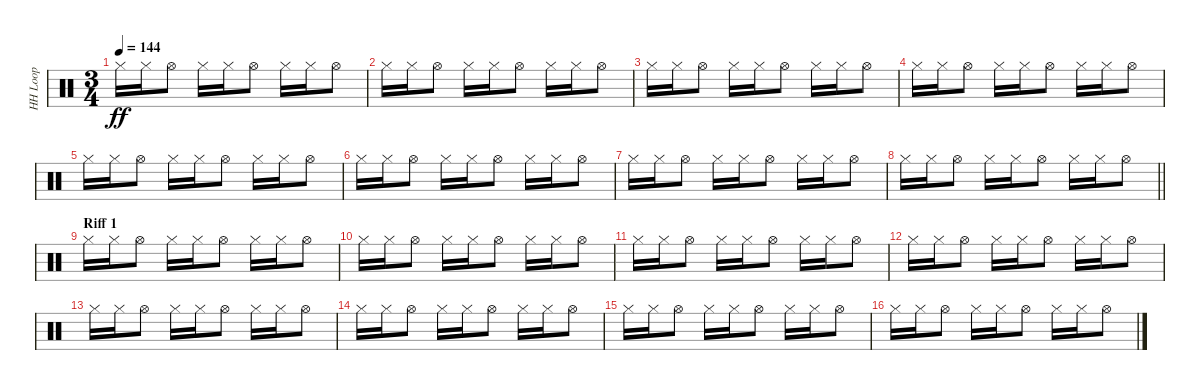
\track ("HH Loop" "HH Loop") {instrument percussion}
\staff {score}
\articulation defaults
\ts (3 4)
\tempo 144
\clef neutral
\ks c "Hi-Hat (closed)".16{dy ff} "Hi-Hat (closed)".16 "Hi-Hat (open)".8 "Hi-Hat (closed)".16 "Hi-Hat (closed)".16 "Hi-Hat (open)".8 "Hi-Hat (closed)".16 "Hi-Hat (closed)".16 "Hi-Hat (open)".8
|
"Hi-Hat (closed)".16 "Hi-Hat (closed)".16 "Hi-Hat (open)".8 "Hi-Hat (closed)".16 "Hi-Hat (closed)".16 "Hi-Hat (open)".8 "Hi-Hat (closed)".16 "Hi-Hat (closed)".16 "Hi-Hat (open)".8 |
"Hi-Hat (closed)".16 "Hi-Hat (closed)".16 "Hi-Hat (open)".8 "Hi-Hat (closed)".16 "Hi-Hat (closed)".16 "Hi-Hat (open)".8 "Hi-Hat (closed)".16 "Hi-Hat (closed)".16 "Hi-Hat (open)".8 |
"Hi-Hat (closed)".16 "Hi-Hat (closed)".16 "Hi-Hat (open)".8 "Hi-Hat (closed)".16 "Hi-Hat (closed)".16 "Hi-Hat (open)".8 "Hi-Hat (closed)".16 "Hi-Hat (closed)".16 "Hi-Hat (open)".8 |
"Hi-Hat (closed)".16 "Hi-Hat (closed)".16 "Hi-Hat (open)".8 "Hi-Hat (closed)".16 "Hi-Hat (closed)".16 "Hi-Hat (open)".8 "Hi-Hat (closed)".16 "Hi-Hat (closed)".16 "Hi-Hat (open)".8 |
"Hi-Hat (closed)".16 "Hi-Hat (closed)".16 "Hi-Hat (open)".8 "Hi-Hat (closed)".16 "Hi-Hat (closed)".16 "Hi-Hat (open)".8 "Hi-Hat (closed)".16 "Hi-Hat (closed)".16 "Hi-Hat (open)".8 |
"Hi-Hat (closed)".16 "Hi-Hat (closed)".16 "Hi-Hat (open)".8 "Hi-Hat (closed)".16 "Hi-Hat (closed)".16 "Hi-Hat (open)".8 "Hi-Hat (closed)".16 "Hi-Hat (closed)".16 "Hi-Hat (open)".8 |
\barLineRight lightlight "Hi-Hat (closed)".16 "Hi-Hat (closed)".16 "Hi-Hat (open)".8 "Hi-Hat (closed)".16 "Hi-Hat (closed)".16 "Hi-Hat (open)".8 "Hi-Hat (closed)".16 "Hi-Hat (closed)".16 "Hi-Hat (open)".8
|
\section ("" "Riff 1")
"Hi-Hat (closed)".16 "Hi-Hat (closed)".16 "Hi-Hat (open)".8 "Hi-Hat (closed)".16 "Hi-Hat (closed)".16 "Hi-Hat (open)".8 "Hi-Hat (closed)".16 "Hi-Hat (closed)".16 "Hi-Hat (open)".8 |
"Hi-Hat (closed)".16 "Hi-Hat (closed)".16 "Hi-Hat (open)".8 "Hi-Hat (closed)".16 "Hi-Hat (closed)".16 "Hi-Hat (open)".8 "Hi-Hat (closed)".16 "Hi-Hat (closed)".16 "Hi-Hat (open)".8 |
"Hi-Hat (closed)".16 "Hi-Hat (closed)".16 "Hi-Hat (open)".8 "Hi-Hat (closed)".16 "Hi-Hat (closed)".16 "Hi-Hat (open)".8 "Hi-Hat (closed)".16 "Hi-Hat (closed)".16 "Hi-Hat (open)".8 |
"Hi-Hat (closed)".16 "Hi-Hat (closed)".16 "Hi-Hat (open)".8 "Hi-Hat (closed)".16 "Hi-Hat (closed)".16 "Hi-Hat (open)".8 "Hi-Hat (closed)".16 "Hi-Hat (closed)".16 "Hi-Hat (open)".8 |
"Hi-Hat (closed)".16 "Hi-Hat (closed)".16 "Hi-Hat (open)".8 "Hi-Hat (closed)".16 "Hi-Hat (closed)".16 "Hi-Hat (open)".8 "Hi-Hat (closed)".16 "Hi-Hat (closed)".16 "Hi-Hat (open)".8 |
"Hi-Hat (closed)".16 "Hi-Hat (closed)".16 "Hi-Hat (open)".8 "Hi-Hat (closed)".16 "Hi-Hat (closed)".16 "Hi-Hat (open)".8 "Hi-Hat (closed)".16 "Hi-Hat (closed)".16 "Hi-Hat (open)".8 |
"Hi-Hat (closed)".16 "Hi-Hat (closed)".16 "Hi-Hat (open)".8 "Hi-Hat (closed)".16 "Hi-Hat (closed)".16 "Hi-Hat (open)".8 "Hi-Hat (closed)".16 "Hi-Hat (closed)".16 "Hi-Hat (open)".8 |
"Hi-Hat (closed)".16 "Hi-Hat (closed)".16 "Hi-Hat (open)".8 "Hi-Hat (closed)".16 "Hi-Hat (closed)".16 "Hi-Hat (open)".8 "Hi-Hat (closed)".16 "Hi-Hat (closed)".16 "Hi-Hat (open)".8
